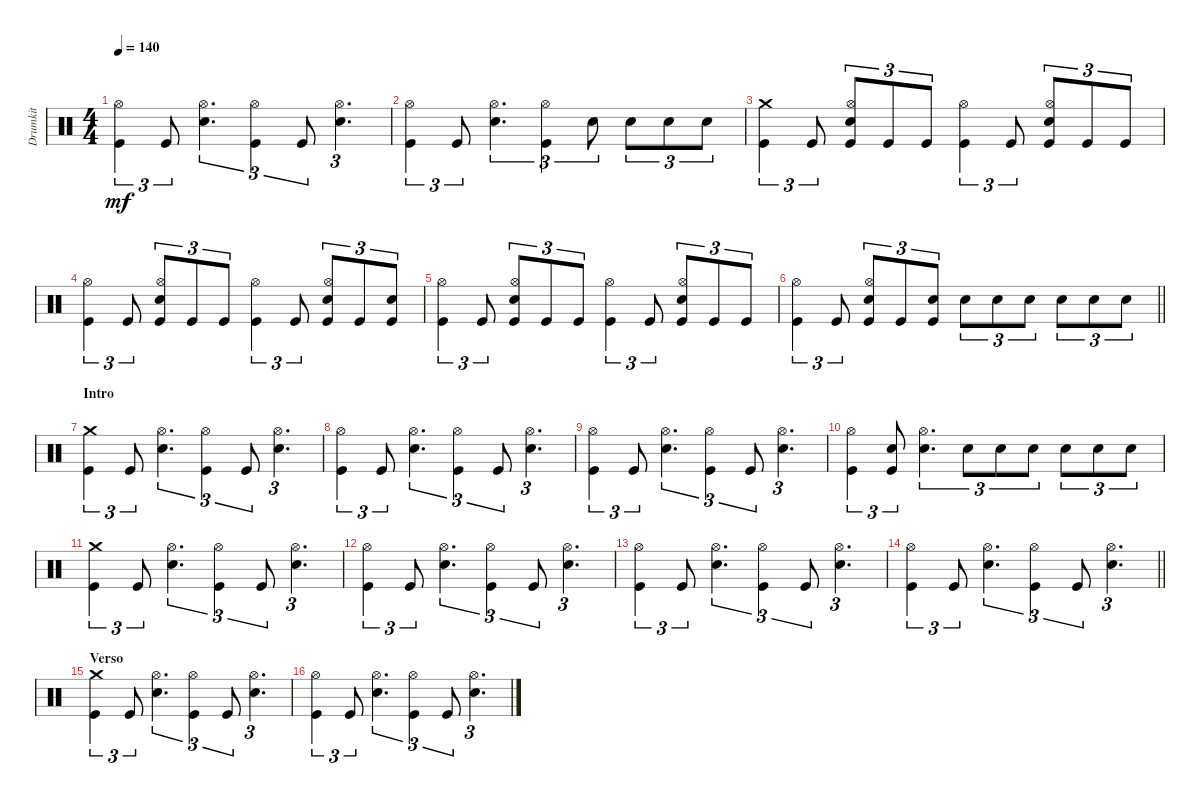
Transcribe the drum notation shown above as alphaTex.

\track ("Drumkit" "Drumkit") {instrument percussion}
\staff {score}
\articulation defaults
\ts (4 4)
\tempo 140
\clef neutral
\ks c
("Kick (hit)" "Hi-Hat (open)").4{tu (3 2) dy mf} "Kick (hit)".8{tu (3 2)} ("Snare (hit) 2" "Hi-Hat (open)").4{d tu (3 2)} ("Kick (hit)" "Hi-Hat (open)").4{tu (3 2)} "Kick (hit)".8{tu (3 2)} ("Snare (hit) 2" "Hi-Hat (open)").4{d tu (3 2)} |
("Kick (hit)" "Hi-Hat (open)").4{tu (3 2)} "Kick (hit)".8{tu (3 2)} ("Snare (hit) 2" "Hi-Hat (open)").4{d tu (3 2)} ("Kick (hit)" "Hi-Hat (open)").4{tu (3 2)} "Snare (hit) 2".8{tu (3 2)} "Snare (hit) 2".8{tu (3 2)} "Snare (hit) 2".8{tu (3 2)} "Snare (hit) 2".8{tu (3 2)} |
("Kick (hit)" "Crash medium (hit)").4{tu (3 2)} "Kick (hit)".8{tu (3 2)} ("Kick (hit)" "Hi-Hat (open)" "Snare (hit) 2").8{tu (3 2)} "Kick (hit)".8{tu (3 2)} "Kick (hit)".8{tu (3 2)} ("Kick (hit)" "Hi-Hat (open)").4{tu (3 2)} "Kick (hit)".8{tu (3 2)} ("Kick (hit)" "Hi-Hat (open)" "Snare (hit) 2").8{tu (3 2)} "Kick (hit)".8{tu (3 2)} "Kick (hit)".8{tu (3 2)} |
("Kick (hit)" "Hi-Hat (open)").4{tu (3 2)} "Kick (hit)".8{tu (3 2)} ("Kick (hit)" "Hi-Hat (open)" "Snare (hit) 2").8{tu (3 2)} "Kick (hit)".8{tu (3 2)} "Kick (hit)".8{tu (3 2)} ("Kick (hit)" "Hi-Hat (open)").4{tu (3 2)} "Kick (hit)".8{tu (3 2)} ("Kick (hit)" "Hi-Hat (open)" "Snare (hit) 2").8{tu (3 2)} "Kick (hit)".8{tu (3 2)} ("Kick (hit)" "Snare (hit) 2").8{tu (3 2)} |
("Kick (hit)" "Hi-Hat (open)").4{tu (3 2)} "Kick (hit)".8{tu (3 2)} ("Kick (hit)" "Hi-Hat (open)" "Snare (hit) 2").8{tu (3 2)} "Kick (hit)".8{tu (3 2)} "Kick (hit)".8{tu (3 2)} ("Kick (hit)" "Hi-Hat (open)").4{tu (3 2)} "Kick (hit)".8{tu (3 2)} ("Kick (hit)" "Hi-Hat (open)" "Snare (hit) 2").8{tu (3 2)} "Kick (hit)".8{tu (3 2)} "Kick (hit)".8{tu (3 2)} |
\barLineRight lightlight
("Kick (hit)" "Hi-Hat (open)").4{tu (3 2)} "Kick (hit)".8{tu (3 2)} ("Kick (hit)" "Hi-Hat (open)" "Snare (hit) 2").8{tu (3 2)} "Kick (hit)".8{tu (3 2)} ("Kick (hit)" "Snare (hit) 2").8{tu (3 2)} "Snare (hit) 2".8{tu (3 2)} "Snare (hit) 2".8{tu (3 2)} "Snare (hit) 2".8{tu (3 2)} "Snare (hit) 2".8{tu (3 2)} "Snare (hit) 2".8{tu (3 2)} "Snare (hit) 2".8{tu (3 2)} |
\section ("" "Intro")
("Crash medium (hit)" "Kick (hit)").4{tu (3 2)} "Kick (hit)".8{tu (3 2)} ("Snare (hit) 2" "Hi-Hat (open)").4{d tu (3 2)} ("Kick (hit)" "Hi-Hat (open)").4{tu (3 2)} "Kick (hit)".8{tu (3 2)} ("Snare (hit) 2" "Hi-Hat (open)").4{d tu (3 2)} |
("Kick (hit)" "Hi-Hat (open)").4{tu (3 2)} "Kick (hit)".8{tu (3 2)} ("Snare (hit) 2" "Hi-Hat (open)").4{d tu (3 2)} ("Kick (hit)" "Hi-Hat (open)").4{tu (3 2)} "Kick (hit)".8{tu (3 2)} ("Snare (hit) 2" "Hi-Hat (open)").4{d tu (3 2)} |
("Kick (hit)" "Hi-Hat (open)").4{tu (3 2)} "Kick (hit)".8{tu (3 2)} ("Snare (hit) 2" "Hi-Hat (open)").4{d tu (3 2)} ("Kick (hit)" "Hi-Hat (open)").4{tu (3 2)} "Kick (hit)".8{tu (3 2)} ("Snare (hit) 2" "Hi-Hat (open)").4{d tu (3 2)} |
("Kick (hit)" "Hi-Hat (open)").4{tu (3 2)} ("Kick (hit)" "Snare (hit) 2").8{tu (3 2)} ("Snare (hit) 2" "Hi-Hat (open)").4{d tu (3 2)} "Snare (hit) 2".8{tu (3 2)} "Snare (hit) 2".8{tu (3 2)} "Snare (hit) 2".8{tu (3 2)} "Snare (hit) 2".8{tu (3 2)} "Snare (hit) 2".8{tu (3 2)} "Snare (hit) 2".8{tu (3 2)} |
("Crash medium (hit)" "Kick (hit)").4{tu (3 2)} "Kick (hit)".8{tu (3 2)} ("Snare (hit) 2" "Hi-Hat (open)").4{d tu (3 2)} ("Kick (hit)" "Hi-Hat (open)").4{tu (3 2)} "Kick (hit)".8{tu (3 2)} ("Snare (hit) 2" "Hi-Hat (open)").4{d tu (3 2)} |
("Kick (hit)" "Hi-Hat (open)").4{tu (3 2)} "Kick (hit)".8{tu (3 2)} ("Snare (hit) 2" "Hi-Hat (open)").4{d tu (3 2)} ("Kick (hit)" "Hi-Hat (open)").4{tu (3 2)} "Kick (hit)".8{tu (3 2)} ("Snare (hit) 2" "Hi-Hat (open)").4{d tu (3 2)} |
("Kick (hit)" "Hi-Hat (open)").4{tu (3 2)} "Kick (hit)".8{tu (3 2)} ("Snare (hit) 2" "Hi-Hat (open)").4{d tu (3 2)} ("Kick (hit)" "Hi-Hat (open)").4{tu (3 2)} "Kick (hit)".8{tu (3 2)} ("Snare (hit) 2" "Hi-Hat (open)").4{d tu (3 2)} |
\barLineRight lightlight
("Kick (hit)" "Hi-Hat (open)").4{tu (3 2)} "Kick (hit)".8{tu (3 2)} ("Snare (hit) 2" "Hi-Hat (open)").4{d tu (3 2)} ("Kick (hit)" "Hi-Hat (open)").4{tu (3 2)} "Kick (hit)".8{tu (3 2)} ("Snare (hit) 2" "Hi-Hat (open)").4{d tu (3 2)} |
\section ("" "Verso")
("Crash medium (hit)" "Kick (hit)").4{tu (3 2)} "Kick (hit)".8{tu (3 2)} ("Snare (hit) 2" "Hi-Hat (open)").4{d tu (3 2)} ("Kick (hit)" "Hi-Hat (open)").4{tu (3 2)} "Kick (hit)".8{tu (3 2)} ("Snare (hit) 2" "Hi-Hat (open)").4{d tu (3 2)} |
("Kick (hit)" "Hi-Hat (open)").4{tu (3 2)} "Kick (hit)".8{tu (3 2)} ("Snare (hit) 2" "Hi-Hat (open)").4{d tu (3 2)} ("Kick (hit)" "Hi-Hat (open)").4{tu (3 2)} "Kick (hit)".8{tu (3 2)} ("Snare (hit) 2" "Hi-Hat (open)").4{d tu (3 2)}
